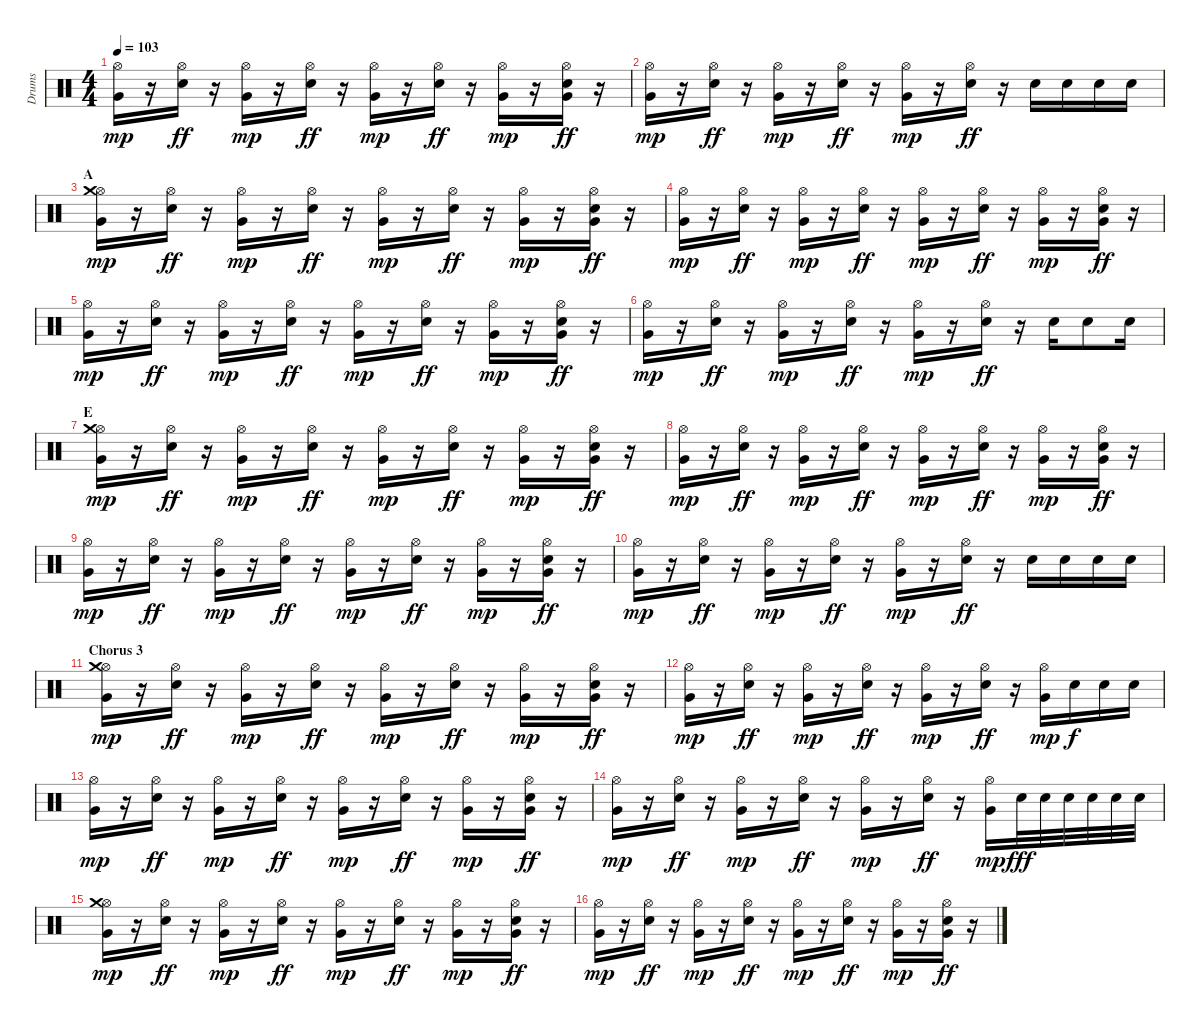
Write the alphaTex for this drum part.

\track ("Drums" "Drums") {instrument percussion}
\staff {score}
\articulation defaults
\ts (4 4)
\tempo 103
\clef neutral
\ks c
("Hi-Hat (open)" "Very Low Tom (hit)").16{dy mp} r.16 ("Hi-Hat (open)" "Electric Snare (hit)").16{dy ff} r.16 ("Hi-Hat (open)" "Very Low Tom (hit)").16{dy mp} r.16 ("Hi-Hat (open)" "Electric Snare (hit)").16{dy ff} r.16 ("Hi-Hat (open)" "Very Low Tom (hit)").16{dy mp} r.16 ("Hi-Hat (open)" "Electric Snare (hit)").16{dy ff} r.16 ("Hi-Hat (open)" "Very Low Tom (hit)").16{dy mp} r.16 ("Hi-Hat (open)" "Electric Snare (hit)" "Very Low Tom (hit)").16{dy ff} r.16 |
("Hi-Hat (open)" "Very Low Tom (hit)").16{dy mp} r.16 ("Hi-Hat (open)" "Electric Snare (hit)").16{dy ff} r.16 ("Hi-Hat (open)" "Very Low Tom (hit)").16{dy mp} r.16 ("Hi-Hat (open)" "Electric Snare (hit)").16{dy ff} r.16 ("Hi-Hat (open)" "Very Low Tom (hit)").16{dy mp} r.16 ("Hi-Hat (open)" "Electric Snare (hit)").16{dy ff} r.16 "Electric Snare (hit)".16 "Electric Snare (hit)".16 "Electric Snare (hit)".16 "Electric Snare (hit)".16 |
\section ("" "A")
("Hi-Hat (open)" "Crash medium (hit)" "Very Low Tom (hit)").16{dy mp} r.16 ("Hi-Hat (open)" "Electric Snare (hit)").16{dy ff} r.16 ("Hi-Hat (open)" "Very Low Tom (hit)").16{dy mp} r.16 ("Hi-Hat (open)" "Electric Snare (hit)").16{dy ff} r.16 ("Hi-Hat (open)" "Very Low Tom (hit)").16{dy mp} r.16 ("Hi-Hat (open)" "Electric Snare (hit)").16{dy ff} r.16 ("Hi-Hat (open)" "Very Low Tom (hit)").16{dy mp} r.16 ("Hi-Hat (open)" "Electric Snare (hit)" "Very Low Tom (hit)").16{dy ff} r.16 |
("Hi-Hat (open)" "Very Low Tom (hit)").16{dy mp} r.16 ("Hi-Hat (open)" "Electric Snare (hit)").16{dy ff} r.16 ("Hi-Hat (open)" "Very Low Tom (hit)").16{dy mp} r.16 ("Hi-Hat (open)" "Electric Snare (hit)").16{dy ff} r.16 ("Hi-Hat (open)" "Very Low Tom (hit)").16{dy mp} r.16 ("Hi-Hat (open)" "Electric Snare (hit)").16{dy ff} r.16 ("Hi-Hat (open)" "Very Low Tom (hit)").16{dy mp} r.16 ("Hi-Hat (open)" "Electric Snare (hit)" "Very Low Tom (hit)").16{dy ff} r.16 |
("Hi-Hat (open)" "Very Low Tom (hit)").16{dy mp} r.16 ("Hi-Hat (open)" "Electric Snare (hit)").16{dy ff} r.16 ("Hi-Hat (open)" "Very Low Tom (hit)").16{dy mp} r.16 ("Hi-Hat (open)" "Electric Snare (hit)").16{dy ff} r.16 ("Hi-Hat (open)" "Very Low Tom (hit)").16{dy mp} r.16 ("Hi-Hat (open)" "Electric Snare (hit)").16{dy ff} r.16 ("Hi-Hat (open)" "Very Low Tom (hit)").16{dy mp} r.16 ("Hi-Hat (open)" "Electric Snare (hit)" "Very Low Tom (hit)").16{dy ff} r.16 |
("Hi-Hat (open)" "Very Low Tom (hit)").16{dy mp} r.16 ("Hi-Hat (open)" "Electric Snare (hit)").16{dy ff} r.16 ("Hi-Hat (open)" "Very Low Tom (hit)").16{dy mp} r.16 ("Hi-Hat (open)" "Electric Snare (hit)").16{dy ff} r.16 ("Hi-Hat (open)" "Very Low Tom (hit)").16{dy mp} r.16 ("Hi-Hat (open)" "Electric Snare (hit)").16{dy ff} r.16 "Electric Snare (hit)".16 "Electric Snare (hit)".8 "Electric Snare (hit)".16 |
\section ("" "E")
("Hi-Hat (open)" "Crash medium (hit)" "Very Low Tom (hit)").16{dy mp} r.16 ("Hi-Hat (open)" "Electric Snare (hit)").16{dy ff} r.16 ("Hi-Hat (open)" "Very Low Tom (hit)").16{dy mp} r.16 ("Hi-Hat (open)" "Electric Snare (hit)").16{dy ff} r.16 ("Hi-Hat (open)" "Very Low Tom (hit)").16{dy mp} r.16 ("Hi-Hat (open)" "Electric Snare (hit)").16{dy ff} r.16 ("Hi-Hat (open)" "Very Low Tom (hit)").16{dy mp} r.16 ("Hi-Hat (open)" "Electric Snare (hit)" "Very Low Tom (hit)").16{dy ff} r.16 |
("Hi-Hat (open)" "Very Low Tom (hit)").16{dy mp} r.16 ("Hi-Hat (open)" "Electric Snare (hit)").16{dy ff} r.16 ("Hi-Hat (open)" "Very Low Tom (hit)").16{dy mp} r.16 ("Hi-Hat (open)" "Electric Snare (hit)").16{dy ff} r.16 ("Hi-Hat (open)" "Very Low Tom (hit)").16{dy mp} r.16 ("Hi-Hat (open)" "Electric Snare (hit)").16{dy ff} r.16 ("Hi-Hat (open)" "Very Low Tom (hit)").16{dy mp} r.16 ("Hi-Hat (open)" "Electric Snare (hit)" "Very Low Tom (hit)").16{dy ff} r.16 |
("Hi-Hat (open)" "Very Low Tom (hit)").16{dy mp} r.16 ("Hi-Hat (open)" "Electric Snare (hit)").16{dy ff} r.16 ("Hi-Hat (open)" "Very Low Tom (hit)").16{dy mp} r.16 ("Hi-Hat (open)" "Electric Snare (hit)").16{dy ff} r.16 ("Hi-Hat (open)" "Very Low Tom (hit)").16{dy mp} r.16 ("Hi-Hat (open)" "Electric Snare (hit)").16{dy ff} r.16 ("Hi-Hat (open)" "Very Low Tom (hit)").16{dy mp} r.16 ("Hi-Hat (open)" "Electric Snare (hit)" "Very Low Tom (hit)").16{dy ff} r.16 |
("Hi-Hat (open)" "Very Low Tom (hit)").16{dy mp} r.16 ("Hi-Hat (open)" "Electric Snare (hit)").16{dy ff} r.16 ("Hi-Hat (open)" "Very Low Tom (hit)").16{dy mp} r.16 ("Hi-Hat (open)" "Electric Snare (hit)").16{dy ff} r.16 ("Hi-Hat (open)" "Very Low Tom (hit)").16{dy mp} r.16 ("Hi-Hat (open)" "Electric Snare (hit)").16{dy ff} r.16 "Electric Snare (hit)".16 "Electric Snare (hit)".16 "Electric Snare (hit)".16 "Electric Snare (hit)".16 |
\section ("" "Chorus 3")
("Hi-Hat (open)" "Crash medium (hit)" "Very Low Tom (hit)").16{dy mp} r.16 ("Hi-Hat (open)" "Electric Snare (hit)").16{dy ff} r.16 ("Hi-Hat (open)" "Very Low Tom (hit)").16{dy mp} r.16 ("Hi-Hat (open)" "Electric Snare (hit)").16{dy ff} r.16 ("Hi-Hat (open)" "Very Low Tom (hit)").16{dy mp} r.16 ("Hi-Hat (open)" "Electric Snare (hit)").16{dy ff} r.16 ("Hi-Hat (open)" "Very Low Tom (hit)").16{dy mp} r.16 ("Hi-Hat (open)" "Electric Snare (hit)" "Very Low Tom (hit)").16{dy ff} r.16 |
("Hi-Hat (open)" "Very Low Tom (hit)").16{dy mp} r.16 ("Hi-Hat (open)" "Electric Snare (hit)").16{dy ff} r.16 ("Hi-Hat (open)" "Very Low Tom (hit)").16{dy mp} r.16 ("Hi-Hat (open)" "Electric Snare (hit)").16{dy ff} r.16 ("Hi-Hat (open)" "Very Low Tom (hit)").16{dy mp} r.16 ("Hi-Hat (open)" "Electric Snare (hit)").16{dy ff} r.16 ("Hi-Hat (open)" "Very Low Tom (hit)").16{dy mp} "Electric Snare (hit)".16{dy f} "Electric Snare (hit)".16 "Electric Snare (hit)".16 |
("Hi-Hat (open)" "Very Low Tom (hit)").16{dy mp} r.16 ("Hi-Hat (open)" "Electric Snare (hit)").16{dy ff} r.16 ("Hi-Hat (open)" "Very Low Tom (hit)").16{dy mp} r.16 ("Hi-Hat (open)" "Electric Snare (hit)").16{dy ff} r.16 ("Hi-Hat (open)" "Very Low Tom (hit)").16{dy mp} r.16 ("Hi-Hat (open)" "Electric Snare (hit)").16{dy ff} r.16 ("Hi-Hat (open)" "Very Low Tom (hit)").16{dy mp} r.16 ("Hi-Hat (open)" "Electric Snare (hit)" "Very Low Tom (hit)").16{dy ff} r.16 |
("Hi-Hat (open)" "Very Low Tom (hit)").16{dy mp} r.16 ("Hi-Hat (open)" "Electric Snare (hit)").16{dy ff} r.16 ("Hi-Hat (open)" "Very Low Tom (hit)").16{dy mp} r.16 ("Hi-Hat (open)" "Electric Snare (hit)").16{dy ff} r.16 ("Hi-Hat (open)" "Very Low Tom (hit)").16{dy mp} r.16 ("Hi-Hat (open)" "Electric Snare (hit)").16{dy ff} r.16 ("Hi-Hat (open)" "Very Low Tom (hit)").16{dy mp} "Electric Snare (hit)".32{dy fff} "Electric Snare (hit)".32 "Electric Snare (hit)".32 "Electric Snare (hit)".32 "Electric Snare (hit)".32 "Electric Snare (hit)".32 |
("Hi-Hat (open)" "Crash medium (hit)" "Very Low Tom (hit)").16{dy mp} r.16 ("Hi-Hat (open)" "Electric Snare (hit)").16{dy ff} r.16 ("Hi-Hat (open)" "Very Low Tom (hit)").16{dy mp} r.16 ("Hi-Hat (open)" "Electric Snare (hit)").16{dy ff} r.16 ("Hi-Hat (open)" "Very Low Tom (hit)").16{dy mp} r.16 ("Hi-Hat (open)" "Electric Snare (hit)").16{dy ff} r.16 ("Hi-Hat (open)" "Very Low Tom (hit)").16{dy mp} r.16 ("Hi-Hat (open)" "Electric Snare (hit)" "Very Low Tom (hit)").16{dy ff} r.16 |
("Hi-Hat (open)" "Very Low Tom (hit)").16{dy mp} r.16 ("Hi-Hat (open)" "Electric Snare (hit)").16{dy ff} r.16 ("Hi-Hat (open)" "Very Low Tom (hit)").16{dy mp} r.16 ("Hi-Hat (open)" "Electric Snare (hit)").16{dy ff} r.16 ("Hi-Hat (open)" "Very Low Tom (hit)").16{dy mp} r.16 ("Hi-Hat (open)" "Electric Snare (hit)").16{dy ff} r.16 ("Hi-Hat (open)" "Very Low Tom (hit)").16{dy mp} r.16 ("Hi-Hat (open)" "Electric Snare (hit)" "Very Low Tom (hit)").16{dy ff} r.16
